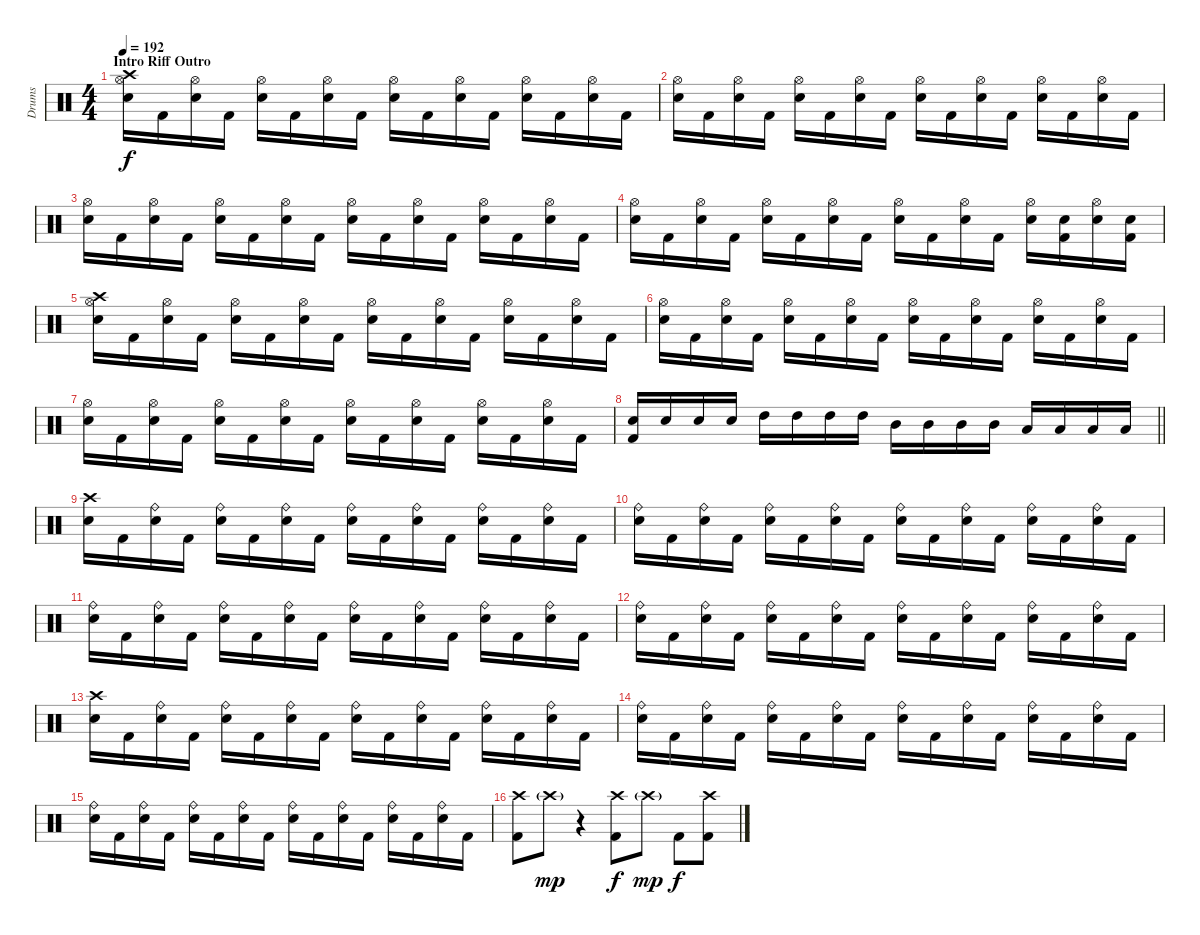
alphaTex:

\track ("Drums" "Drums") {instrument percussion}
\staff {score}
\articulation defaults
\ts (4 4)
\section ("" "Intro Riff Outro")
\tempo 192
\clef neutral
\ks c
("Crash high (hit)" "Hi-Hat (open)" "Electric Snare (hit)").16{dy f} "Kick (hit) 2".16 ("Hi-Hat (open)" "Electric Snare (hit)").16 "Kick (hit) 2".16 ("Hi-Hat (open)" "Electric Snare (hit)").16 "Kick (hit) 2".16 ("Hi-Hat (open)" "Electric Snare (hit)").16 "Kick (hit) 2".16 ("Hi-Hat (open)" "Electric Snare (hit)").16 "Kick (hit) 2".16 ("Hi-Hat (open)" "Electric Snare (hit)").16 "Kick (hit) 2".16 ("Hi-Hat (open)" "Electric Snare (hit)").16 "Kick (hit) 2".16 ("Hi-Hat (open)" "Electric Snare (hit)").16 "Kick (hit) 2".16 |
("Hi-Hat (open)" "Electric Snare (hit)").16 "Kick (hit) 2".16 ("Hi-Hat (open)" "Electric Snare (hit)").16 "Kick (hit) 2".16 ("Hi-Hat (open)" "Electric Snare (hit)").16 "Kick (hit) 2".16 ("Hi-Hat (open)" "Electric Snare (hit)").16 "Kick (hit) 2".16 ("Hi-Hat (open)" "Electric Snare (hit)").16 "Kick (hit) 2".16 ("Hi-Hat (open)" "Electric Snare (hit)").16 "Kick (hit) 2".16 ("Hi-Hat (open)" "Electric Snare (hit)").16 "Kick (hit) 2".16 ("Hi-Hat (open)" "Electric Snare (hit)").16 "Kick (hit) 2".16 |
("Hi-Hat (open)" "Electric Snare (hit)").16 "Kick (hit) 2".16 ("Hi-Hat (open)" "Electric Snare (hit)").16 "Kick (hit) 2".16 ("Hi-Hat (open)" "Electric Snare (hit)").16 "Kick (hit) 2".16 ("Hi-Hat (open)" "Electric Snare (hit)").16 "Kick (hit) 2".16 ("Hi-Hat (open)" "Electric Snare (hit)").16 "Kick (hit) 2".16 ("Hi-Hat (open)" "Electric Snare (hit)").16 "Kick (hit) 2".16 ("Hi-Hat (open)" "Electric Snare (hit)").16 "Kick (hit) 2".16 ("Hi-Hat (open)" "Electric Snare (hit)").16 "Kick (hit) 2".16 |
("Hi-Hat (open)" "Electric Snare (hit)").16 "Kick (hit) 2".16 ("Hi-Hat (open)" "Electric Snare (hit)").16 "Kick (hit) 2".16 ("Hi-Hat (open)" "Electric Snare (hit)").16 "Kick (hit) 2".16 ("Hi-Hat (open)" "Electric Snare (hit)").16 "Kick (hit) 2".16 ("Hi-Hat (open)" "Electric Snare (hit)").16 "Kick (hit) 2".16 ("Hi-Hat (open)" "Electric Snare (hit)").16 "Kick (hit) 2".16 ("Hi-Hat (open)" "Electric Snare (hit)").16 ("Electric Snare (hit)" "Kick (hit) 2").16 ("Hi-Hat (open)" "Electric Snare (hit)").16 ("Electric Snare (hit)" "Kick (hit) 2").16 |
("Crash high (hit)" "Hi-Hat (open)" "Electric Snare (hit)").16 "Kick (hit) 2".16 ("Hi-Hat (open)" "Electric Snare (hit)").16 "Kick (hit) 2".16 ("Hi-Hat (open)" "Electric Snare (hit)").16 "Kick (hit) 2".16 ("Hi-Hat (open)" "Electric Snare (hit)").16 "Kick (hit) 2".16 ("Hi-Hat (open)" "Electric Snare (hit)").16 "Kick (hit) 2".16 ("Hi-Hat (open)" "Electric Snare (hit)").16 "Kick (hit) 2".16 ("Hi-Hat (open)" "Electric Snare (hit)").16 "Kick (hit) 2".16 ("Hi-Hat (open)" "Electric Snare (hit)").16 "Kick (hit) 2".16 |
("Hi-Hat (open)" "Electric Snare (hit)").16 "Kick (hit) 2".16 ("Hi-Hat (open)" "Electric Snare (hit)").16 "Kick (hit) 2".16 ("Hi-Hat (open)" "Electric Snare (hit)").16 "Kick (hit) 2".16 ("Hi-Hat (open)" "Electric Snare (hit)").16 "Kick (hit) 2".16 ("Hi-Hat (open)" "Electric Snare (hit)").16 "Kick (hit) 2".16 ("Hi-Hat (open)" "Electric Snare (hit)").16 "Kick (hit) 2".16 ("Hi-Hat (open)" "Electric Snare (hit)").16 "Kick (hit) 2".16 ("Hi-Hat (open)" "Electric Snare (hit)").16 "Kick (hit) 2".16 |
("Hi-Hat (open)" "Electric Snare (hit)").16 "Kick (hit) 2".16 ("Hi-Hat (open)" "Electric Snare (hit)").16 "Kick (hit) 2".16 ("Hi-Hat (open)" "Electric Snare (hit)").16 "Kick (hit) 2".16 ("Hi-Hat (open)" "Electric Snare (hit)").16 "Kick (hit) 2".16 ("Hi-Hat (open)" "Electric Snare (hit)").16 "Kick (hit) 2".16 ("Hi-Hat (open)" "Electric Snare (hit)").16 "Kick (hit) 2".16 ("Hi-Hat (open)" "Electric Snare (hit)").16 "Kick (hit) 2".16 ("Hi-Hat (open)" "Electric Snare (hit)").16 "Kick (hit) 2".16 |
\barLineRight lightlight
("Electric Snare (hit)" "Kick (hit) 2").16 "Electric Snare (hit)".16 "Electric Snare (hit)".16 "Electric Snare (hit)".16 "High Tom (hit)".16 "High Tom (hit)".16 "High Tom (hit)".16 "High Tom (hit)".16 "Mid Tom (hit)".16 "Mid Tom (hit)".16 "Mid Tom (hit)".16 "Mid Tom (hit)".16 "Low Tom (hit)".16 "Low Tom (hit)".16 "Low Tom (hit)".16 "Low Tom (hit)".16 |
("Crash high (hit)" "Electric Snare (hit)").16 "Kick (hit) 2".16 ("Ride (bell)" "Electric Snare (hit)").16 "Kick (hit) 2".16 ("Ride (bell)" "Electric Snare (hit)").16 "Kick (hit) 2".16 ("Ride (bell)" "Electric Snare (hit)").16 "Kick (hit) 2".16 ("Ride (bell)" "Electric Snare (hit)").16 "Kick (hit) 2".16 ("Ride (bell)" "Electric Snare (hit)").16 "Kick (hit) 2".16 ("Ride (bell)" "Electric Snare (hit)").16 "Kick (hit) 2".16 ("Ride (bell)" "Electric Snare (hit)").16 "Kick (hit) 2".16 |
("Ride (bell)" "Electric Snare (hit)").16 "Kick (hit) 2".16 ("Ride (bell)" "Electric Snare (hit)").16 "Kick (hit) 2".16 ("Ride (bell)" "Electric Snare (hit)").16 "Kick (hit) 2".16 ("Ride (bell)" "Electric Snare (hit)").16 "Kick (hit) 2".16 ("Ride (bell)" "Electric Snare (hit)").16 "Kick (hit) 2".16 ("Ride (bell)" "Electric Snare (hit)").16 "Kick (hit) 2".16 ("Ride (bell)" "Electric Snare (hit)").16 "Kick (hit) 2".16 ("Ride (bell)" "Electric Snare (hit)").16 "Kick (hit) 2".16 |
("Ride (bell)" "Electric Snare (hit)").16 "Kick (hit) 2".16 ("Ride (bell)" "Electric Snare (hit)").16 "Kick (hit) 2".16 ("Ride (bell)" "Electric Snare (hit)").16 "Kick (hit) 2".16 ("Ride (bell)" "Electric Snare (hit)").16 "Kick (hit) 2".16 ("Ride (bell)" "Electric Snare (hit)").16 "Kick (hit) 2".16 ("Ride (bell)" "Electric Snare (hit)").16 "Kick (hit) 2".16 ("Ride (bell)" "Electric Snare (hit)").16 "Kick (hit) 2".16 ("Ride (bell)" "Electric Snare (hit)").16 "Kick (hit) 2".16 |
("Ride (bell)" "Electric Snare (hit)").16 "Kick (hit) 2".16 ("Ride (bell)" "Electric Snare (hit)").16 "Kick (hit) 2".16 ("Ride (bell)" "Electric Snare (hit)").16 "Kick (hit) 2".16 ("Ride (bell)" "Electric Snare (hit)").16 "Kick (hit) 2".16 ("Ride (bell)" "Electric Snare (hit)").16 "Kick (hit) 2".16 ("Ride (bell)" "Electric Snare (hit)").16 "Kick (hit) 2".16 ("Ride (bell)" "Electric Snare (hit)").16 "Kick (hit) 2".16 ("Ride (bell)" "Electric Snare (hit)").16 "Kick (hit) 2".16 |
("Crash high (hit)" "Electric Snare (hit)").16 "Kick (hit) 2".16 ("Ride (bell)" "Electric Snare (hit)").16 "Kick (hit) 2".16 ("Ride (bell)" "Electric Snare (hit)").16 "Kick (hit) 2".16 ("Ride (bell)" "Electric Snare (hit)").16 "Kick (hit) 2".16 ("Ride (bell)" "Electric Snare (hit)").16 "Kick (hit) 2".16 ("Ride (bell)" "Electric Snare (hit)").16 "Kick (hit) 2".16 ("Ride (bell)" "Electric Snare (hit)").16 "Kick (hit) 2".16 ("Ride (bell)" "Electric Snare (hit)").16 "Kick (hit) 2".16 |
("Ride (bell)" "Electric Snare (hit)").16 "Kick (hit) 2".16 ("Ride (bell)" "Electric Snare (hit)").16 "Kick (hit) 2".16 ("Ride (bell)" "Electric Snare (hit)").16 "Kick (hit) 2".16 ("Ride (bell)" "Electric Snare (hit)").16 "Kick (hit) 2".16 ("Ride (bell)" "Electric Snare (hit)").16 "Kick (hit) 2".16 ("Ride (bell)" "Electric Snare (hit)").16 "Kick (hit) 2".16 ("Ride (bell)" "Electric Snare (hit)").16 "Kick (hit) 2".16 ("Ride (bell)" "Electric Snare (hit)").16 "Kick (hit) 2".16 |
("Ride (bell)" "Electric Snare (hit)").16 "Kick (hit) 2".16 ("Ride (bell)" "Electric Snare (hit)").16 "Kick (hit) 2".16 ("Ride (bell)" "Electric Snare (hit)").16 "Kick (hit) 2".16 ("Ride (bell)" "Electric Snare (hit)").16 "Kick (hit) 2".16 ("Ride (bell)" "Electric Snare (hit)").16 "Kick (hit) 2".16 ("Ride (bell)" "Electric Snare (hit)").16 "Kick (hit) 2".16 ("Ride (bell)" "Electric Snare (hit)").16 "Kick (hit) 2".16 ("Ride (bell)" "Electric Snare (hit)").16 "Kick (hit) 2".16 |
("Crash high (hit)" "Kick (hit) 2").8 "Crash high (hit)"{g}.8{dy mp} r.4 ("Crash high (hit)" "Kick (hit) 2").8{dy f} "Crash high (hit)"{g}.8{dy mp} "Kick (hit) 2".8{dy f} ("Crash high (hit)" "Kick (hit) 2").8
